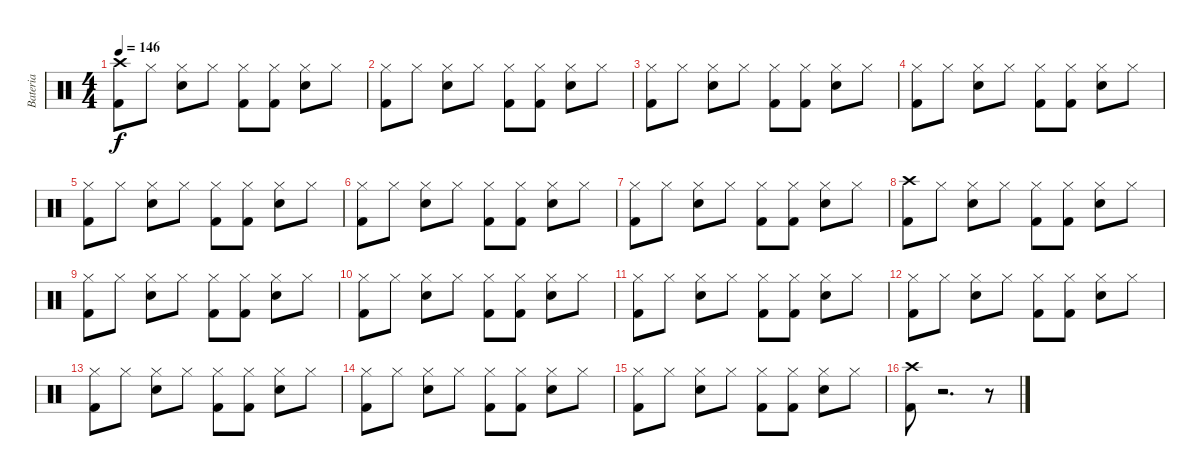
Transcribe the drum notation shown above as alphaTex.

\track ("Bateria" "Bateria") {instrument percussion}
\staff {score}
\articulation defaults
\ts (4 4)
\tempo 146
\clef neutral
\ks c
("Kick (hit) 2" "Crash high (hit)").8{dy f} "Hi-Hat (closed)".8 ("Hi-Hat (closed)" "Electric Snare (hit)").8 "Hi-Hat (closed)".8 ("Hi-Hat (closed)" "Kick (hit) 2").8 ("Kick (hit) 2" "Hi-Hat (closed)").8 ("Electric Snare (hit)" "Hi-Hat (closed)").8 "Hi-Hat (closed)".8 |
("Hi-Hat (closed)" "Kick (hit) 2").8 "Hi-Hat (closed)".8 ("Hi-Hat (closed)" "Electric Snare (hit)").8 "Hi-Hat (closed)".8 ("Hi-Hat (closed)" "Kick (hit) 2").8 ("Kick (hit) 2" "Hi-Hat (closed)").8 ("Electric Snare (hit)" "Hi-Hat (closed)").8 "Hi-Hat (closed)".8 |
("Hi-Hat (closed)" "Kick (hit) 2").8 "Hi-Hat (closed)".8 ("Hi-Hat (closed)" "Electric Snare (hit)").8 "Hi-Hat (closed)".8 ("Hi-Hat (closed)" "Kick (hit) 2").8 ("Hi-Hat (closed)" "Kick (hit) 2").8 ("Electric Snare (hit)" "Hi-Hat (closed)").8 "Hi-Hat (closed)".8 |
("Hi-Hat (closed)" "Kick (hit) 2").8 "Hi-Hat (closed)".8 ("Hi-Hat (closed)" "Electric Snare (hit)").8 "Hi-Hat (closed)".8 ("Hi-Hat (closed)" "Kick (hit) 2").8 ("Kick (hit) 2" "Hi-Hat (closed)").8 ("Electric Snare (hit)" "Hi-Hat (closed)").8 "Hi-Hat (closed)".8 |
("Hi-Hat (closed)" "Kick (hit) 2").8 "Hi-Hat (closed)".8 ("Hi-Hat (closed)" "Electric Snare (hit)").8 "Hi-Hat (closed)".8 ("Hi-Hat (closed)" "Kick (hit) 2").8 ("Kick (hit) 2" "Hi-Hat (closed)").8 ("Electric Snare (hit)" "Hi-Hat (closed)").8 "Hi-Hat (closed)".8 |
("Hi-Hat (closed)" "Kick (hit) 2").8 "Hi-Hat (closed)".8 ("Hi-Hat (closed)" "Electric Snare (hit)").8 "Hi-Hat (closed)".8 ("Hi-Hat (closed)" "Kick (hit) 2").8 ("Kick (hit) 2" "Hi-Hat (closed)").8 ("Electric Snare (hit)" "Hi-Hat (closed)").8 "Hi-Hat (closed)".8 |
("Hi-Hat (closed)" "Kick (hit) 2").8 "Hi-Hat (closed)".8 ("Hi-Hat (closed)" "Electric Snare (hit)").8 "Hi-Hat (closed)".8 ("Hi-Hat (closed)" "Kick (hit) 2").8 ("Hi-Hat (closed)" "Kick (hit) 2").8 ("Electric Snare (hit)" "Hi-Hat (closed)").8 "Hi-Hat (closed)".8 |
("Crash high (hit)" "Kick (hit) 2").8 "Hi-Hat (closed)".8 ("Electric Snare (hit)" "Hi-Hat (closed)").8 "Hi-Hat (closed)".8 ("Kick (hit) 2" "Hi-Hat (closed)").8 ("Hi-Hat (closed)" "Kick (hit) 2").8 ("Hi-Hat (closed)" "Electric Snare (hit)").8 "Hi-Hat (closed)".8 |
("Kick (hit) 2" "Hi-Hat (closed)").8 "Hi-Hat (closed)".8 ("Electric Snare (hit)" "Hi-Hat (closed)").8 "Hi-Hat (closed)".8 ("Kick (hit) 2" "Hi-Hat (closed)").8 ("Hi-Hat (closed)" "Kick (hit) 2").8 ("Hi-Hat (closed)" "Electric Snare (hit)").8 "Hi-Hat (closed)".8 |
("Kick (hit) 2" "Hi-Hat (closed)").8 "Hi-Hat (closed)".8 ("Electric Snare (hit)" "Hi-Hat (closed)").8 "Hi-Hat (closed)".8 ("Kick (hit) 2" "Hi-Hat (closed)").8 ("Kick (hit) 2" "Hi-Hat (closed)").8 ("Hi-Hat (closed)" "Electric Snare (hit)").8 "Hi-Hat (closed)".8 |
("Kick (hit) 2" "Hi-Hat (closed)").8 "Hi-Hat (closed)".8 ("Electric Snare (hit)" "Hi-Hat (closed)").8 "Hi-Hat (closed)".8 ("Kick (hit) 2" "Hi-Hat (closed)").8 ("Hi-Hat (closed)" "Kick (hit) 2").8 ("Hi-Hat (closed)" "Electric Snare (hit)").8 "Hi-Hat (closed)".8 |
("Kick (hit) 2" "Hi-Hat (closed)").8 "Hi-Hat (closed)".8 ("Electric Snare (hit)" "Hi-Hat (closed)").8 "Hi-Hat (closed)".8 ("Kick (hit) 2" "Hi-Hat (closed)").8 ("Hi-Hat (closed)" "Kick (hit) 2").8 ("Hi-Hat (closed)" "Electric Snare (hit)").8 "Hi-Hat (closed)".8 |
("Kick (hit) 2" "Hi-Hat (closed)").8 "Hi-Hat (closed)".8 ("Electric Snare (hit)" "Hi-Hat (closed)").8 "Hi-Hat (closed)".8 ("Kick (hit) 2" "Hi-Hat (closed)").8 ("Hi-Hat (closed)" "Kick (hit) 2").8 ("Hi-Hat (closed)" "Electric Snare (hit)").8 "Hi-Hat (closed)".8 |
("Kick (hit) 2" "Hi-Hat (closed)").8 "Hi-Hat (closed)".8 ("Electric Snare (hit)" "Hi-Hat (closed)").8 "Hi-Hat (closed)".8 ("Kick (hit) 2" "Hi-Hat (closed)").8 ("Hi-Hat (closed)" "Kick (hit) 2").8 ("Hi-Hat (closed)" "Electric Snare (hit)").8 "Hi-Hat (closed)".8 |
("Kick (hit) 2" "Hi-Hat (closed)").8 "Hi-Hat (closed)".8 ("Electric Snare (hit)" "Hi-Hat (closed)").8 "Hi-Hat (closed)".8 ("Kick (hit) 2" "Hi-Hat (closed)").8 ("Kick (hit) 2" "Hi-Hat (closed)").8 ("Hi-Hat (closed)" "Electric Snare (hit)").8 "Hi-Hat (closed)".8 |
("Crash high (hit)" "Kick (hit) 2").8 r.2{d} r.8
